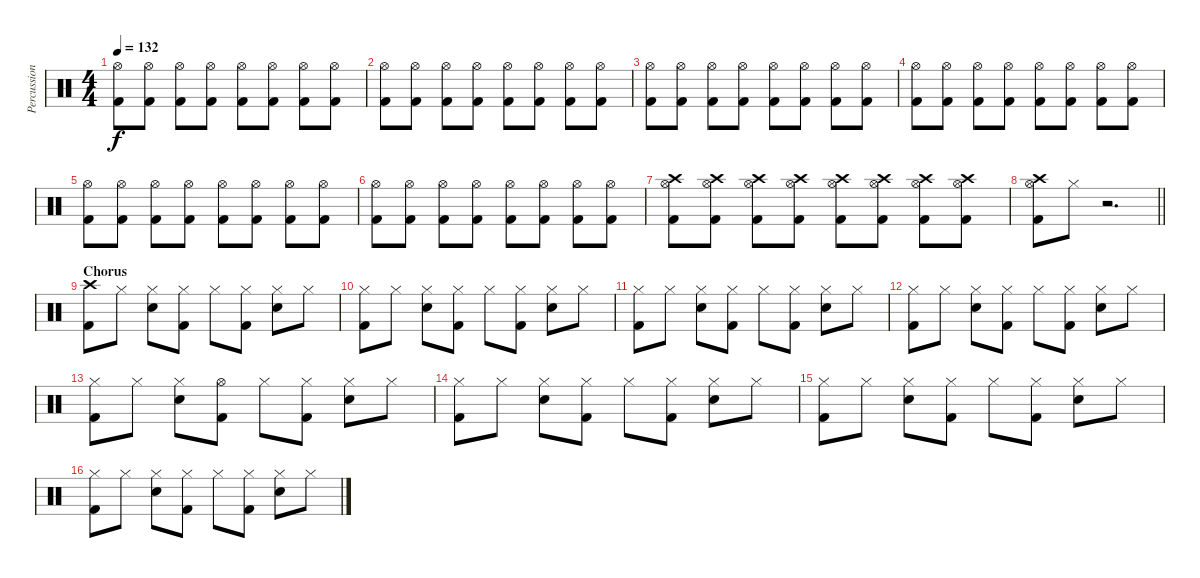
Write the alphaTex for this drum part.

\track ("Percussions" "Percussion") {instrument percussion}
\staff {score}
\articulation defaults
\ts (4 4)
\tempo 132
\clef neutral
\ks c
("Hi-Hat (open)" "Kick (hit) 2").8{dy f volume 16} ("Hi-Hat (open)" "Kick (hit) 2").8 ("Hi-Hat (open)" "Kick (hit) 2").8 ("Hi-Hat (open)" "Kick (hit) 2").8 ("Hi-Hat (open)" "Kick (hit) 2").8 ("Hi-Hat (open)" "Kick (hit) 2").8 ("Hi-Hat (open)" "Kick (hit) 2").8 ("Hi-Hat (open)" "Kick (hit) 2").8 |
("Hi-Hat (open)" "Kick (hit) 2").8 ("Hi-Hat (open)" "Kick (hit) 2").8 ("Hi-Hat (open)" "Kick (hit) 2").8 ("Hi-Hat (open)" "Kick (hit) 2").8 ("Hi-Hat (open)" "Kick (hit) 2").8 ("Hi-Hat (open)" "Kick (hit) 2").8 ("Hi-Hat (open)" "Kick (hit) 2").8 ("Hi-Hat (open)" "Kick (hit) 2").8 |
("Hi-Hat (open)" "Kick (hit) 2").8 ("Hi-Hat (open)" "Kick (hit) 2").8 ("Hi-Hat (open)" "Kick (hit) 2").8 ("Hi-Hat (open)" "Kick (hit) 2").8 ("Hi-Hat (open)" "Kick (hit) 2").8 ("Hi-Hat (open)" "Kick (hit) 2").8 ("Hi-Hat (open)" "Kick (hit) 2").8 ("Hi-Hat (open)" "Kick (hit) 2").8 |
("Hi-Hat (open)" "Kick (hit) 2").8 ("Hi-Hat (open)" "Kick (hit) 2").8 ("Hi-Hat (open)" "Kick (hit) 2").8 ("Hi-Hat (open)" "Kick (hit) 2").8 ("Hi-Hat (open)" "Kick (hit) 2").8 ("Hi-Hat (open)" "Kick (hit) 2").8 ("Hi-Hat (open)" "Kick (hit) 2").8 ("Hi-Hat (open)" "Kick (hit) 2").8 |
("Hi-Hat (open)" "Kick (hit) 2").8 ("Hi-Hat (open)" "Kick (hit) 2").8 ("Hi-Hat (open)" "Kick (hit) 2").8 ("Hi-Hat (open)" "Kick (hit) 2").8 ("Hi-Hat (open)" "Kick (hit) 2").8 ("Hi-Hat (open)" "Kick (hit) 2").8 ("Hi-Hat (open)" "Kick (hit) 2").8 ("Hi-Hat (open)" "Kick (hit) 2").8 |
("Hi-Hat (open)" "Kick (hit) 2").8 ("Hi-Hat (open)" "Kick (hit) 2").8 ("Hi-Hat (open)" "Kick (hit) 2").8 ("Hi-Hat (open)" "Kick (hit) 2").8 ("Hi-Hat (open)" "Kick (hit) 2").8 ("Hi-Hat (open)" "Kick (hit) 2").8 ("Hi-Hat (open)" "Kick (hit) 2").8 ("Hi-Hat (open)" "Kick (hit) 2").8 |
("Crash high (hit)" "Hi-Hat (open)" "Kick (hit) 2").8 ("Crash high (hit)" "Hi-Hat (open)" "Kick (hit) 2").8 ("Crash high (hit)" "Hi-Hat (open)" "Kick (hit) 2").8 ("Crash high (hit)" "Hi-Hat (open)" "Kick (hit) 2").8 ("Crash high (hit)" "Hi-Hat (open)" "Kick (hit) 2").8 ("Crash high (hit)" "Hi-Hat (open)" "Kick (hit) 2").8 ("Crash high (hit)" "Hi-Hat (open)" "Kick (hit) 2").8 ("Crash high (hit)" "Hi-Hat (open)" "Kick (hit) 2").8 |
\barLineRight lightlight
("Crash high (hit)" "Hi-Hat (open)" "Kick (hit) 2").8 "Hi-Hat (closed)".8 r.2{d volume 0} |
\section ("" "Chorus")
("Crash high (hit)" "Kick (hit) 2").8{volume 16} "Hi-Hat (closed)".8 ("Hi-Hat (closed)" "Electric Snare (hit)").8 ("Hi-Hat (closed)" "Kick (hit) 2").8 "Hi-Hat (closed)".8 ("Hi-Hat (closed)" "Kick (hit) 2").8 ("Hi-Hat (closed)" "Electric Snare (hit)").8 "Hi-Hat (closed)".8 |
("Hi-Hat (closed)" "Kick (hit) 2").8 "Hi-Hat (closed)".8 ("Hi-Hat (closed)" "Electric Snare (hit)").8 ("Hi-Hat (closed)" "Kick (hit) 2").8 "Hi-Hat (closed)".8 ("Hi-Hat (closed)" "Kick (hit) 2").8 ("Hi-Hat (closed)" "Electric Snare (hit)").8 "Hi-Hat (closed)".8 |
("Hi-Hat (closed)" "Kick (hit) 2").8 "Hi-Hat (closed)".8 ("Hi-Hat (closed)" "Electric Snare (hit)").8 ("Hi-Hat (closed)" "Kick (hit) 2").8 "Hi-Hat (closed)".8 ("Hi-Hat (closed)" "Kick (hit) 2").8 ("Hi-Hat (closed)" "Electric Snare (hit)").8 "Hi-Hat (closed)".8 |
("Hi-Hat (closed)" "Kick (hit) 2").8 "Hi-Hat (closed)".8 ("Hi-Hat (closed)" "Electric Snare (hit)").8 ("Hi-Hat (closed)" "Kick (hit) 2").8 "Hi-Hat (closed)".8 ("Hi-Hat (closed)" "Kick (hit) 2").8 ("Hi-Hat (closed)" "Electric Snare (hit)").8 "Hi-Hat (closed)".8 |
("Hi-Hat (closed)" "Kick (hit) 2").8 "Hi-Hat (closed)".8 ("Hi-Hat (closed)" "Electric Snare (hit)").8 ("Hi-Hat (open)" "Kick (hit) 2").8 "Hi-Hat (closed)".8 ("Hi-Hat (closed)" "Kick (hit) 2").8 ("Hi-Hat (closed)" "Electric Snare (hit)").8 "Hi-Hat (closed)".8 |
("Hi-Hat (closed)" "Kick (hit) 2").8 "Hi-Hat (closed)".8 ("Hi-Hat (closed)" "Electric Snare (hit)").8 ("Hi-Hat (closed)" "Kick (hit) 2").8 "Hi-Hat (closed)".8 ("Hi-Hat (closed)" "Kick (hit) 2").8 ("Hi-Hat (closed)" "Electric Snare (hit)").8 "Hi-Hat (closed)".8 |
("Hi-Hat (closed)" "Kick (hit) 2").8 "Hi-Hat (closed)".8 ("Hi-Hat (closed)" "Electric Snare (hit)").8 ("Hi-Hat (closed)" "Kick (hit) 2").8 "Hi-Hat (closed)".8 ("Hi-Hat (closed)" "Kick (hit) 2").8 ("Hi-Hat (closed)" "Electric Snare (hit)").8 "Hi-Hat (closed)".8 |
("Hi-Hat (closed)" "Kick (hit) 2").8 "Hi-Hat (closed)".8 ("Hi-Hat (closed)" "Electric Snare (hit)").8 ("Hi-Hat (closed)" "Kick (hit) 2").8 "Hi-Hat (closed)".8 ("Hi-Hat (closed)" "Kick (hit) 2").8 ("Hi-Hat (closed)" "Electric Snare (hit)").8 "Hi-Hat (closed)".8
